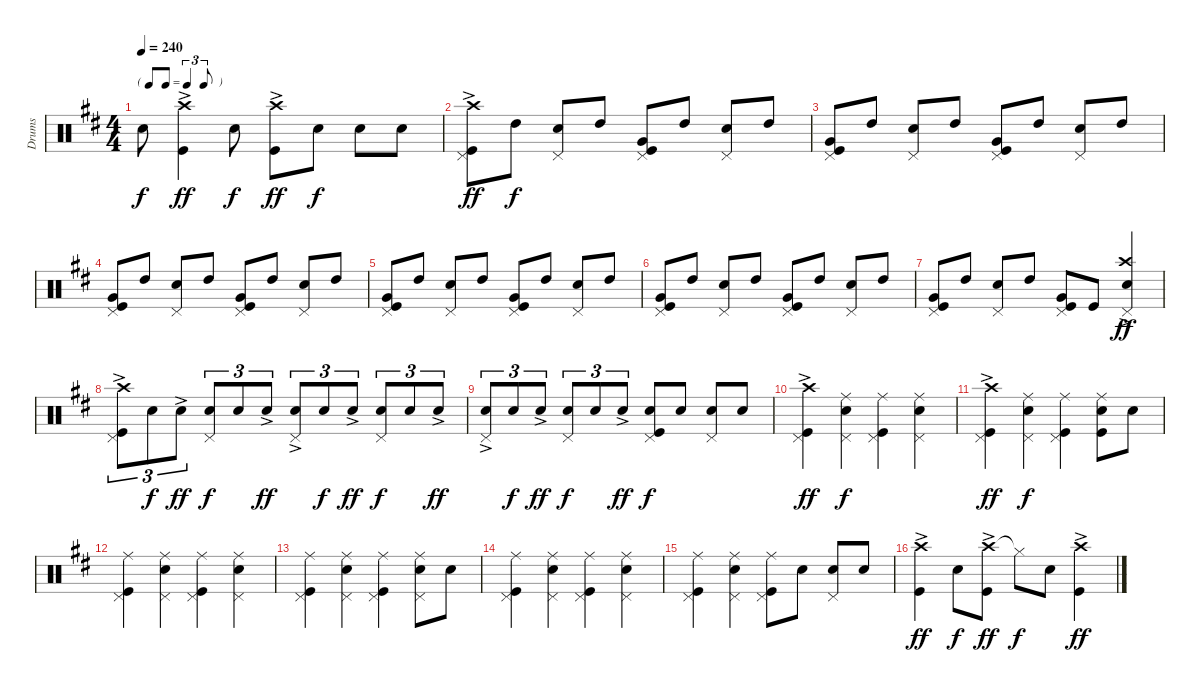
\track ("Drums" "Drums") {instrument percussion}
\staff {score}
\articulation defaults
\ts (4 4)
\tf triplet8th
\tempo 240
\clef neutral
\ks d "Snare (hit) 2".8{dy f}
("Crash high (hit)"{ac} "Kick (hit)").4{dy ff} "Snare (hit) 2".8{dy f} ("Crash high (hit)"{ac} "Kick (hit)").8{dy ff} "Snare (hit) 2".8{dy f} "Snare (hit) 2".8 "Snare (hit) 2".8 |
("Crash high (hit)"{ac} "Kick (hit)" "Pedal Hi-Hat (hit)").8{dy ff} "High Tom (hit)".8{dy f} ("Snare (hit) 2" "Pedal Hi-Hat (hit)").8 "High Tom (hit)".8 ("Very Low Tom (hit)" "Kick (hit)" "Pedal Hi-Hat (hit)").8 "High Tom (hit)".8 ("Snare (hit) 2" "Pedal Hi-Hat (hit)").8 "High Tom (hit)".8 |
("Very Low Tom (hit)" "Kick (hit)" "Pedal Hi-Hat (hit)").8 "High Tom (hit)".8 ("Snare (hit) 2" "Pedal Hi-Hat (hit)").8 "High Tom (hit)".8 ("Very Low Tom (hit)" "Kick (hit)" "Pedal Hi-Hat (hit)").8 "High Tom (hit)".8 ("Snare (hit) 2" "Pedal Hi-Hat (hit)").8 "High Tom (hit)".8 |
("Very Low Tom (hit)" "Kick (hit)" "Pedal Hi-Hat (hit)").8 "High Tom (hit)".8 ("Snare (hit) 2" "Pedal Hi-Hat (hit)").8 "High Tom (hit)".8 ("Very Low Tom (hit)" "Kick (hit)" "Pedal Hi-Hat (hit)").8 "High Tom (hit)".8 ("Snare (hit) 2" "Pedal Hi-Hat (hit)").8 "High Tom (hit)".8 |
("Very Low Tom (hit)" "Kick (hit)" "Pedal Hi-Hat (hit)").8 "High Tom (hit)".8 ("Snare (hit) 2" "Pedal Hi-Hat (hit)").8 "High Tom (hit)".8 ("Very Low Tom (hit)" "Kick (hit)" "Pedal Hi-Hat (hit)").8 "High Tom (hit)".8 ("Snare (hit) 2" "Pedal Hi-Hat (hit)").8 "High Tom (hit)".8 |
("Very Low Tom (hit)" "Kick (hit)" "Pedal Hi-Hat (hit)").8 "High Tom (hit)".8 ("Snare (hit) 2" "Pedal Hi-Hat (hit)").8 "High Tom (hit)".8 ("Very Low Tom (hit)" "Kick (hit)" "Pedal Hi-Hat (hit)").8 "High Tom (hit)".8 ("Snare (hit) 2" "Pedal Hi-Hat (hit)").8 "High Tom (hit)".8 |
("Very Low Tom (hit)" "Kick (hit)" "Pedal Hi-Hat (hit)").8 "High Tom (hit)".8 ("Snare (hit) 2" "Pedal Hi-Hat (hit)").8 "High Tom (hit)".8 ("Very Low Tom (hit)" "Kick (hit)" "Pedal Hi-Hat (hit)").8 "Kick (hit)".8 ("Crash high (hit)"{ac} "Snare (hit) 2" "Pedal Hi-Hat (hit)").4{dy ff} |
("Crash high (hit)"{ac} "Kick (hit)" "Pedal Hi-Hat (hit)").8{tu (3 2)} "Snare (hit) 2".8{tu (3 2) dy f} "Snare (hit) 2"{ac}.8{tu (3 2) dy ff} ("Snare (hit) 2" "Pedal Hi-Hat (hit)").8{tu (3 2) dy f} "Snare (hit) 2".8{tu (3 2)} "Snare (hit) 2"{ac}.8{tu (3 2) dy ff} ("Snare (hit) 2"{ac} "Pedal Hi-Hat (hit)").8{tu (3 2)} "Snare (hit) 2".8{tu (3 2) dy f} "Snare (hit) 2"{ac}.8{tu (3 2) dy ff} ("Snare (hit) 2" "Pedal Hi-Hat (hit)").8{tu (3 2) dy f} "Snare (hit) 2".8{tu (3 2)} "Snare (hit) 2"{ac}.8{tu (3 2) dy ff} |
("Snare (hit) 2"{ac} "Pedal Hi-Hat (hit)").8{tu (3 2)} "Snare (hit) 2".8{tu (3 2) dy f} "Snare (hit) 2"{ac}.8{tu (3 2) dy ff} ("Snare (hit) 2" "Pedal Hi-Hat (hit)").8{tu (3 2) dy f} "Snare (hit) 2".8{tu (3 2)} "Snare (hit) 2"{ac}.8{tu (3 2) dy ff} ("Snare (hit) 2" "Kick (hit)" "Pedal Hi-Hat (hit)").8{dy f} "Snare (hit) 2".8 ("Snare (hit) 2" "Pedal Hi-Hat (hit)").8 "Snare (hit) 2".8 |
("Crash high (hit)"{ac} "Kick (hit)" "Pedal Hi-Hat (hit)").4{dy ff} ("Ride (middle)" "Snare (hit) 2" "Pedal Hi-Hat (hit)").4{dy f} ("Ride (middle)" "Kick (hit)" "Pedal Hi-Hat (hit)").4 ("Ride (middle)" "Snare (hit) 2" "Pedal Hi-Hat (hit)").4 |
("Crash high (hit)"{ac} "Kick (hit)" "Pedal Hi-Hat (hit)").4{dy ff} ("Ride (middle)" "Snare (hit) 2" "Pedal Hi-Hat (hit)").4{dy f} ("Ride (middle)" "Kick (hit)" "Pedal Hi-Hat (hit)").4 ("Ride (middle)" "Snare (hit) 2" "Kick (hit)").8 "Snare (hit) 2".8 |
("Ride (middle)" "Kick (hit)" "Pedal Hi-Hat (hit)").4 ("Ride (middle)" "Snare (hit) 2" "Pedal Hi-Hat (hit)").4 ("Ride (middle)" "Kick (hit)" "Pedal Hi-Hat (hit)").4 ("Ride (middle)" "Snare (hit) 2" "Pedal Hi-Hat (hit)").4 |
("Ride (middle)" "Kick (hit)" "Pedal Hi-Hat (hit)").4 ("Ride (middle)" "Snare (hit) 2" "Pedal Hi-Hat (hit)").4 ("Ride (middle)" "Kick (hit)" "Pedal Hi-Hat (hit)").4 ("Ride (middle)" "Snare (hit) 2" "Pedal Hi-Hat (hit)").8 "Snare (hit) 2".8 |
("Ride (middle)" "Kick (hit)" "Pedal Hi-Hat (hit)").4 ("Ride (middle)" "Snare (hit) 2" "Pedal Hi-Hat (hit)").4 ("Ride (middle)" "Kick (hit)" "Pedal Hi-Hat (hit)").4 ("Ride (middle)" "Snare (hit) 2" "Pedal Hi-Hat (hit)").4 |
("Ride (middle)" "Kick (hit)" "Pedal Hi-Hat (hit)").4 ("Ride (middle)" "Snare (hit) 2" "Pedal Hi-Hat (hit)").4 ("Ride (middle)" "Kick (hit)" "Pedal Hi-Hat (hit)").8 "Snare (hit) 2".8 ("Snare (hit) 2" "Pedal Hi-Hat (hit)").8 "Snare (hit) 2".8 |
("Crash high (hit)"{ac} "Kick (hit)").4{dy ff} "Snare (hit) 2".8{dy f} ("Crash high (hit)"{ac} "Kick (hit)").8{dy ff} "Hi-Hat (closed)"{t}.8{dy f} "Snare (hit) 2".8 ("Crash high (hit)"{ac} "Kick (hit)").4{dy ff}
